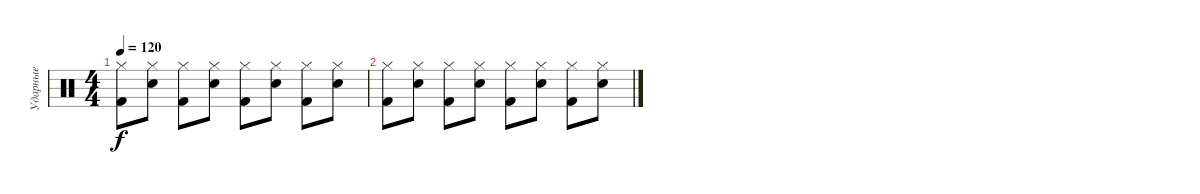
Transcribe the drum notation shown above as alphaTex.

\track ("Ударные" "Ударные") {instrument percussion}
\staff {score}
\articulation defaults
\ts (4 4)
\tempo 120
\clef neutral
\ks c
("Hi-Hat (closed)" "Kick (hit) 2").8{dy f} ("Hi-Hat (closed)" "Electric Snare (hit)").8 ("Hi-Hat (closed)" "Kick (hit) 2").8 ("Hi-Hat (closed)" "Electric Snare (hit)").8 ("Hi-Hat (closed)" "Kick (hit) 2").8 ("Hi-Hat (closed)" "Electric Snare (hit)").8 ("Hi-Hat (closed)" "Kick (hit) 2").8 ("Hi-Hat (closed)" "Electric Snare (hit)").8 |
("Hi-Hat (closed)" "Kick (hit) 2").8 ("Hi-Hat (closed)" "Electric Snare (hit)").8 ("Hi-Hat (closed)" "Kick (hit) 2").8 ("Hi-Hat (closed)" "Electric Snare (hit)").8 ("Hi-Hat (closed)" "Kick (hit) 2").8 ("Hi-Hat (closed)" "Electric Snare (hit)").8 ("Hi-Hat (closed)" "Kick (hit) 2").8 ("Hi-Hat (closed)" "Electric Snare (hit)").8
